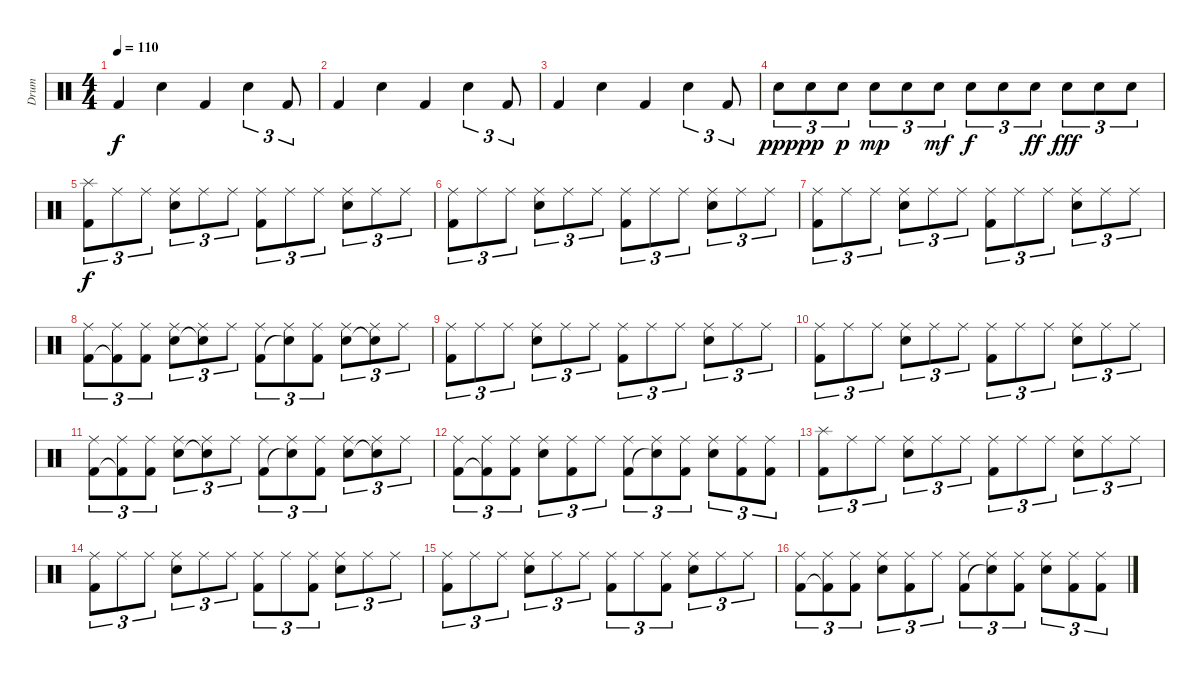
\track ("Drum" "Drum") {instrument percussion}
\staff {score}
\articulation defaults
\ts (4 4)
\tempo 110
\clef neutral
\ks c "Kick (hit) 2".4{dy f} "Electric Snare (hit)".4 "Kick (hit) 2".4 "Electric Snare (hit)".4{tu (3 2)} "Kick (hit) 2".8{tu (3 2)}
|
"Kick (hit) 2".4 "Electric Snare (hit)".4 "Kick (hit) 2".4 "Electric Snare (hit)".4{tu (3 2)} "Kick (hit) 2".8{tu (3 2)} |
"Kick (hit) 2".4 "Electric Snare (hit)".4 "Kick (hit) 2".4 "Electric Snare (hit)".4{tu (3 2)} "Kick (hit) 2".8{tu (3 2)} |
"Electric Snare (hit)".8{tu (3 2) dy ppp} "Electric Snare (hit)".8{tu (3 2) dy pp} "Electric Snare (hit)".8{tu (3 2) dy p} "Electric Snare (hit)".8{tu (3 2) dy mp} "Electric Snare (hit)".8{tu (3 2)} "Electric Snare (hit)".8{tu (3 2) dy mf} "Electric Snare (hit)".8{tu (3 2) dy f} "Electric Snare (hit)".8{tu (3 2)} "Electric Snare (hit)".8{tu (3 2) dy ff} "Electric Snare (hit)".8{tu (3 2) dy fff} "Electric Snare (hit)".8{tu (3 2)} "Electric Snare (hit)".8{tu (3 2)} |
("Splash (hit)" "Kick (hit) 2").8{tu (3 2) dy f} "Ride (middle)".8{tu (3 2)} "Ride (middle)".8{tu (3 2)} ("Ride (middle)" "Electric Snare (hit)").8{tu (3 2)} "Ride (middle)".8{tu (3 2)} "Ride (middle)".8{tu (3 2)} ("Ride (middle)" "Kick (hit) 2").8{tu (3 2)} "Ride (middle)".8{tu (3 2)} "Ride (middle)".8{tu (3 2)} ("Ride (middle)" "Electric Snare (hit)").8{tu (3 2)} "Ride (middle)".8{tu (3 2)} "Ride (middle)".8{tu (3 2)} |
("Ride (middle)" "Kick (hit) 2").8{tu (3 2)} "Ride (middle)".8{tu (3 2)} "Ride (middle)".8{tu (3 2)} ("Ride (middle)" "Electric Snare (hit)").8{tu (3 2)} "Ride (middle)".8{tu (3 2)} "Ride (middle)".8{tu (3 2)} ("Ride (middle)" "Kick (hit) 2").8{tu (3 2)} "Ride (middle)".8{tu (3 2)} "Ride (middle)".8{tu (3 2)} ("Ride (middle)" "Electric Snare (hit)").8{tu (3 2)} "Ride (middle)".8{tu (3 2)} "Ride (middle)".8{tu (3 2)} |
("Ride (middle)" "Kick (hit) 2").8{tu (3 2)} "Ride (middle)".8{tu (3 2)} "Ride (middle)".8{tu (3 2)} ("Ride (middle)" "Electric Snare (hit)").8{tu (3 2)} "Ride (middle)".8{tu (3 2)} "Ride (middle)".8{tu (3 2)} ("Ride (middle)" "Kick (hit) 2").8{tu (3 2)} "Ride (middle)".8{tu (3 2)} "Ride (middle)".8{tu (3 2)} ("Ride (middle)" "Electric Snare (hit)").8{tu (3 2)} "Ride (middle)".8{tu (3 2)} "Ride (middle)".8{tu (3 2)} |
("Ride (middle)" "Kick (hit) 2").8{tu (3 2)} ("Ride (middle)" "Kick (hit) 2"{t}).8{tu (3 2)} ("Ride (middle)" "Kick (hit) 2").8{tu (3 2)} ("Ride (middle)" "Electric Snare (hit)").8{tu (3 2)} ("Ride (middle)" "Snare (hit)"{t}).8{tu (3 2)} "Ride (middle)".8{tu (3 2)} ("Ride (middle)" "Kick (hit) 2").8{tu (3 2)} ("Ride (middle)" "Snare (hit)"{t}).8{tu (3 2)} ("Ride (middle)" "Kick (hit) 2").8{tu (3 2)} ("Ride (middle)" "Electric Snare (hit)").8{tu (3 2)} ("Ride (middle)" "Snare (hit)"{t}).8{tu (3 2)} "Ride (middle)".8{tu (3 2)} |
("Ride (middle)" "Kick (hit) 2").8{tu (3 2)} "Ride (middle)".8{tu (3 2)} "Ride (middle)".8{tu (3 2)} ("Ride (middle)" "Electric Snare (hit)").8{tu (3 2)} "Ride (middle)".8{tu (3 2)} "Ride (middle)".8{tu (3 2)} ("Ride (middle)" "Kick (hit) 2").8{tu (3 2)} "Ride (middle)".8{tu (3 2)} "Ride (middle)".8{tu (3 2)} ("Ride (middle)" "Electric Snare (hit)").8{tu (3 2)} "Ride (middle)".8{tu (3 2)} "Ride (middle)".8{tu (3 2)} |
("Ride (middle)" "Kick (hit) 2").8{tu (3 2)} "Ride (middle)".8{tu (3 2)} "Ride (middle)".8{tu (3 2)} ("Ride (middle)" "Electric Snare (hit)").8{tu (3 2)} "Ride (middle)".8{tu (3 2)} "Ride (middle)".8{tu (3 2)} ("Ride (middle)" "Kick (hit) 2").8{tu (3 2)} "Ride (middle)".8{tu (3 2)} "Ride (middle)".8{tu (3 2)} ("Ride (middle)" "Electric Snare (hit)").8{tu (3 2)} "Ride (middle)".8{tu (3 2)} "Ride (middle)".8{tu (3 2)} |
("Ride (middle)" "Kick (hit) 2").8{tu (3 2)} ("Ride (middle)" "Kick (hit) 2"{t}).8{tu (3 2)} ("Ride (middle)" "Kick (hit) 2").8{tu (3 2)} ("Ride (middle)" "Electric Snare (hit)").8{tu (3 2)} ("Ride (middle)" "Snare (hit)"{t}).8{tu (3 2)} "Ride (middle)".8{tu (3 2)} ("Ride (middle)" "Kick (hit) 2").8{tu (3 2)} ("Ride (middle)" "Snare (hit)"{t}).8{tu (3 2)} ("Ride (middle)" "Kick (hit) 2").8{tu (3 2)} ("Ride (middle)" "Electric Snare (hit)").8{tu (3 2)} ("Ride (middle)" "Snare (hit)"{t}).8{tu (3 2)} "Ride (middle)".8{tu (3 2)} |
("Ride (middle)" "Kick (hit) 2").8{tu (3 2)} ("Ride (middle)" "Kick (hit) 2"{t}).8{tu (3 2)} ("Ride (middle)" "Kick (hit) 2").8{tu (3 2)} ("Ride (middle)" "Electric Snare (hit)").8{tu (3 2)} ("Ride (middle)" "Kick (hit) 2").8{tu (3 2)} "Ride (middle)".8{tu (3 2)} ("Ride (middle)" "Kick (hit) 2").8{tu (3 2)} ("Ride (middle)" "Snare (hit)"{t}).8{tu (3 2)} ("Ride (middle)" "Kick (hit) 2").8{tu (3 2)} ("Ride (middle)" "Electric Snare (hit)").8{tu (3 2)} ("Ride (middle)" "Kick (hit) 2").8{tu (3 2)} ("Ride (middle)" "Kick (hit) 2").8{tu (3 2)} |
("Splash (hit)" "Kick (hit) 2").8{tu (3 2)} "Ride (middle)".8{tu (3 2)} "Ride (middle)".8{tu (3 2)} ("Ride (middle)" "Electric Snare (hit)").8{tu (3 2)} "Ride (middle)".8{tu (3 2)} "Ride (middle)".8{tu (3 2)} ("Ride (middle)" "Kick (hit) 2").8{tu (3 2)} "Ride (middle)".8{tu (3 2)} "Ride (middle)".8{tu (3 2)} ("Ride (middle)" "Electric Snare (hit)").8{tu (3 2)} "Ride (middle)".8{tu (3 2)} "Ride (middle)".8{tu (3 2)} |
("Ride (middle)" "Kick (hit) 2").8{tu (3 2)} "Ride (middle)".8{tu (3 2)} "Ride (middle)".8{tu (3 2)} ("Ride (middle)" "Electric Snare (hit)").8{tu (3 2)} "Ride (middle)".8{tu (3 2)} "Ride (middle)".8{tu (3 2)} ("Ride (middle)" "Kick (hit) 2").8{tu (3 2)} "Ride (middle)".8{tu (3 2)} ("Ride (middle)" "Kick (hit) 2").8{tu (3 2)} ("Ride (middle)" "Electric Snare (hit)").8{tu (3 2)} "Ride (middle)".8{tu (3 2)} "Ride (middle)".8{tu (3 2)} |
("Ride (middle)" "Kick (hit) 2").8{tu (3 2)} "Ride (middle)".8{tu (3 2)} "Ride (middle)".8{tu (3 2)} ("Ride (middle)" "Electric Snare (hit)").8{tu (3 2)} "Ride (middle)".8{tu (3 2)} "Ride (middle)".8{tu (3 2)} ("Ride (middle)" "Kick (hit) 2").8{tu (3 2)} "Ride (middle)".8{tu (3 2)} ("Ride (middle)" "Kick (hit) 2").8{tu (3 2)} ("Ride (middle)" "Electric Snare (hit)").8{tu (3 2)} "Ride (middle)".8{tu (3 2)} "Ride (middle)".8{tu (3 2)} |
("Ride (middle)" "Kick (hit) 2").8{tu (3 2)} ("Ride (middle)" "Kick (hit) 2"{t}).8{tu (3 2)} ("Ride (middle)" "Kick (hit) 2").8{tu (3 2)} ("Ride (middle)" "Electric Snare (hit)").8{tu (3 2)} ("Ride (middle)" "Kick (hit) 2").8{tu (3 2)} "Ride (middle)".8{tu (3 2)} ("Ride (middle)" "Kick (hit) 2").8{tu (3 2)} ("Ride (middle)" "Snare (hit)"{t}).8{tu (3 2)} ("Ride (middle)" "Kick (hit) 2").8{tu (3 2)} ("Ride (middle)" "Electric Snare (hit)").8{tu (3 2)} ("Ride (middle)" "Kick (hit) 2").8{tu (3 2)} ("Ride (middle)" "Kick (hit) 2").8{tu (3 2)}
